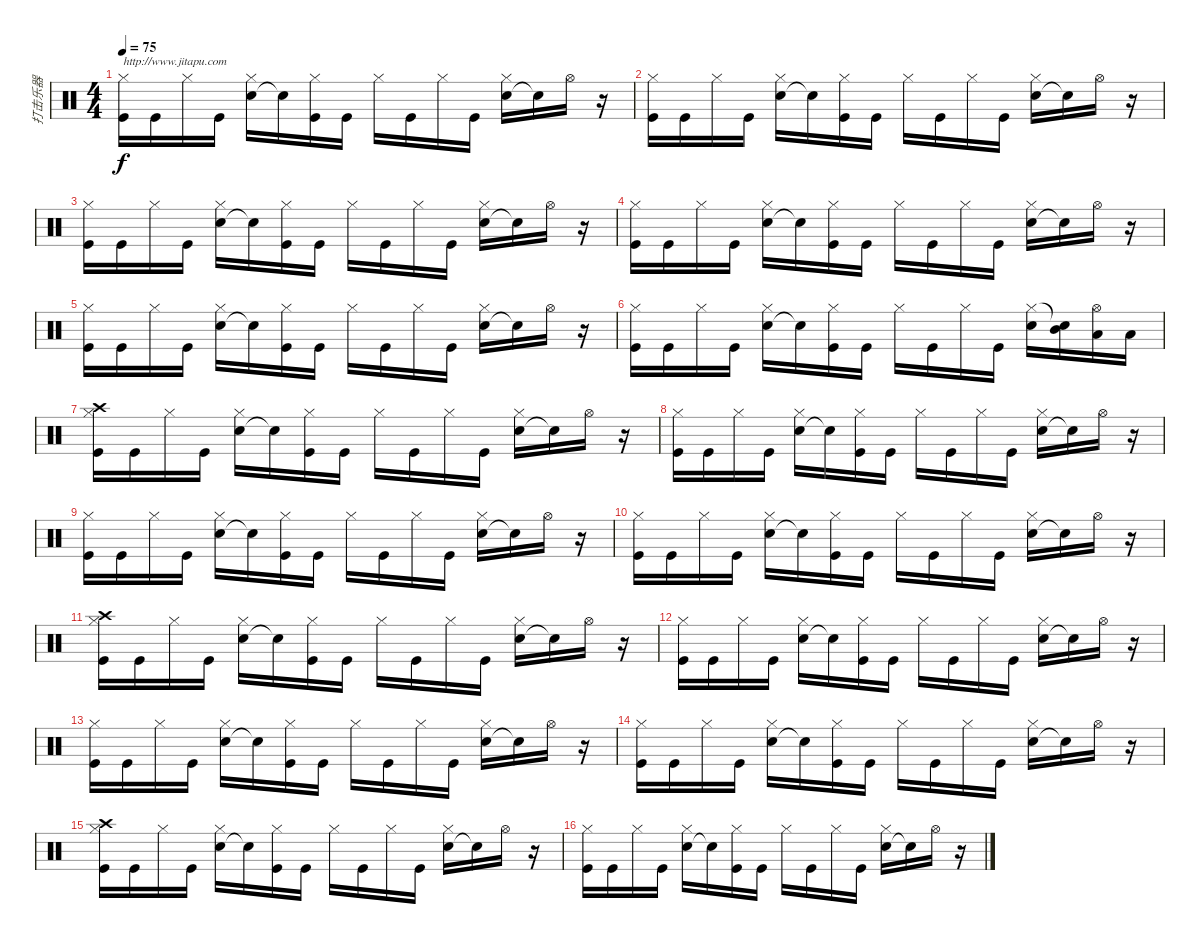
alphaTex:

\track ("打击乐器" "打击乐器") {instrument percussion}
\staff {score}
\articulation defaults
\ts (4 4)
\tempo 75
\clef neutral
\ks c
("Kick (hit)" "Hi-Hat (closed)").16{txt "http://www.jitapu.com" dy f} "Kick (hit)".16 "Hi-Hat (closed)".16 "Kick (hit)".16 ("Electric Snare (hit)" "Hi-Hat (closed)").16 "Electric Snare (hit)"{t}.16 ("Kick (hit)" "Hi-Hat (closed)").16 "Kick (hit)".16 "Hi-Hat (closed)".16 "Kick (hit)".16 "Hi-Hat (closed)".16 "Kick (hit)".16 ("Electric Snare (hit)" "Hi-Hat (closed)").16 "Electric Snare (hit)"{t}.16 "Hi-Hat (open)".16 r.16 |
("Kick (hit)" "Hi-Hat (closed)").16 "Kick (hit)".16 "Hi-Hat (closed)".16 "Kick (hit)".16 ("Electric Snare (hit)" "Hi-Hat (closed)").16 "Electric Snare (hit)"{t}.16 ("Kick (hit)" "Hi-Hat (closed)").16 "Kick (hit)".16 "Hi-Hat (closed)".16 "Kick (hit)".16 "Hi-Hat (closed)".16 "Kick (hit)".16 ("Electric Snare (hit)" "Hi-Hat (closed)").16 "Electric Snare (hit)"{t}.16 "Hi-Hat (open)".16 r.16 |
("Kick (hit)" "Hi-Hat (closed)").16 "Kick (hit)".16 "Hi-Hat (closed)".16 "Kick (hit)".16 ("Electric Snare (hit)" "Hi-Hat (closed)").16 "Electric Snare (hit)"{t}.16 ("Kick (hit)" "Hi-Hat (closed)").16 "Kick (hit)".16 "Hi-Hat (closed)".16 "Kick (hit)".16 "Hi-Hat (closed)".16 "Kick (hit)".16 ("Electric Snare (hit)" "Hi-Hat (closed)").16 "Electric Snare (hit)"{t}.16 "Hi-Hat (open)".16 r.16 |
("Kick (hit)" "Hi-Hat (closed)").16 "Kick (hit)".16 "Hi-Hat (closed)".16 "Kick (hit)".16 ("Electric Snare (hit)" "Hi-Hat (closed)").16 "Electric Snare (hit)"{t}.16 ("Kick (hit)" "Hi-Hat (closed)").16 "Kick (hit)".16 "Hi-Hat (closed)".16 "Kick (hit)".16 "Hi-Hat (closed)".16 "Kick (hit)".16 ("Electric Snare (hit)" "Hi-Hat (closed)").16 "Electric Snare (hit)"{t}.16 "Hi-Hat (open)".16 r.16 |
("Kick (hit)" "Hi-Hat (closed)").16 "Kick (hit)".16 "Hi-Hat (closed)".16 "Kick (hit)".16 ("Electric Snare (hit)" "Hi-Hat (closed)").16 "Electric Snare (hit)"{t}.16 ("Kick (hit)" "Hi-Hat (closed)").16 "Kick (hit)".16 "Hi-Hat (closed)".16 "Kick (hit)".16 "Hi-Hat (closed)".16 "Kick (hit)".16 ("Electric Snare (hit)" "Hi-Hat (closed)").16 "Electric Snare (hit)"{t}.16 "Hi-Hat (open)".16 r.16 |
("Kick (hit)" "Hi-Hat (closed)").16 "Kick (hit)".16 "Hi-Hat (closed)".16 "Kick (hit)".16 ("Electric Snare (hit)" "Hi-Hat (closed)").16 "Electric Snare (hit)"{t}.16 ("Kick (hit)" "Hi-Hat (closed)").16 "Kick (hit)".16 "Hi-Hat (closed)".16 "Kick (hit)".16 "Hi-Hat (closed)".16 "Kick (hit)".16 ("Electric Snare (hit)" "Hi-Hat (closed)").16 ("Mid Tom (hit)" "Electric Snare (hit)"{t}).16 ("Low Tom (hit)" "Hi-Hat (open)").16 "Low Floor Tom (hit)".16 |
("Crash high (hit)" "Kick (hit)" "Hi-Hat (closed)").16 "Kick (hit)".16 "Hi-Hat (closed)".16 "Kick (hit)".16 ("Electric Snare (hit)" "Hi-Hat (closed)").16 "Electric Snare (hit)"{t}.16 ("Kick (hit)" "Hi-Hat (closed)").16 "Kick (hit)".16 "Hi-Hat (closed)".16 "Kick (hit)".16 "Hi-Hat (closed)".16 "Kick (hit)".16 ("Electric Snare (hit)" "Hi-Hat (closed)").16 "Electric Snare (hit)"{t}.16 "Hi-Hat (open)".16 r.16 |
("Kick (hit)" "Hi-Hat (closed)").16 "Kick (hit)".16 "Hi-Hat (closed)".16 "Kick (hit)".16 ("Electric Snare (hit)" "Hi-Hat (closed)").16 "Electric Snare (hit)"{t}.16 ("Kick (hit)" "Hi-Hat (closed)").16 "Kick (hit)".16 "Hi-Hat (closed)".16 "Kick (hit)".16 "Hi-Hat (closed)".16 "Kick (hit)".16 ("Electric Snare (hit)" "Hi-Hat (closed)").16 "Electric Snare (hit)"{t}.16 "Hi-Hat (open)".16 r.16 |
("Kick (hit)" "Hi-Hat (closed)").16 "Kick (hit)".16 "Hi-Hat (closed)".16 "Kick (hit)".16 ("Electric Snare (hit)" "Hi-Hat (closed)").16 "Electric Snare (hit)"{t}.16 ("Kick (hit)" "Hi-Hat (closed)").16 "Kick (hit)".16 "Hi-Hat (closed)".16 "Kick (hit)".16 "Hi-Hat (closed)".16 "Kick (hit)".16 ("Electric Snare (hit)" "Hi-Hat (closed)").16 "Electric Snare (hit)"{t}.16 "Hi-Hat (open)".16 r.16 |
("Kick (hit)" "Hi-Hat (closed)").16 "Kick (hit)".16 "Hi-Hat (closed)".16 "Kick (hit)".16 ("Electric Snare (hit)" "Hi-Hat (closed)").16 "Electric Snare (hit)"{t}.16 ("Kick (hit)" "Hi-Hat (closed)").16 "Kick (hit)".16 "Hi-Hat (closed)".16 "Kick (hit)".16 "Hi-Hat (closed)".16 "Kick (hit)".16 ("Electric Snare (hit)" "Hi-Hat (closed)").16 "Electric Snare (hit)"{t}.16 "Hi-Hat (open)".16 r.16 |
("Crash high (hit)" "Kick (hit)" "Hi-Hat (closed)").16 "Kick (hit)".16 "Hi-Hat (closed)".16 "Kick (hit)".16 ("Electric Snare (hit)" "Hi-Hat (closed)").16 "Electric Snare (hit)"{t}.16 ("Kick (hit)" "Hi-Hat (closed)").16 "Kick (hit)".16 "Hi-Hat (closed)".16 "Kick (hit)".16 "Hi-Hat (closed)".16 "Kick (hit)".16 ("Electric Snare (hit)" "Hi-Hat (closed)").16 "Electric Snare (hit)"{t}.16 "Hi-Hat (open)".16 r.16 |
("Kick (hit)" "Hi-Hat (closed)").16 "Kick (hit)".16 "Hi-Hat (closed)".16 "Kick (hit)".16 ("Electric Snare (hit)" "Hi-Hat (closed)").16 "Electric Snare (hit)"{t}.16 ("Kick (hit)" "Hi-Hat (closed)").16 "Kick (hit)".16 "Hi-Hat (closed)".16 "Kick (hit)".16 "Hi-Hat (closed)".16 "Kick (hit)".16 ("Electric Snare (hit)" "Hi-Hat (closed)").16 "Electric Snare (hit)"{t}.16 "Hi-Hat (open)".16 r.16 |
("Kick (hit)" "Hi-Hat (closed)").16 "Kick (hit)".16 "Hi-Hat (closed)".16 "Kick (hit)".16 ("Electric Snare (hit)" "Hi-Hat (closed)").16 "Electric Snare (hit)"{t}.16 ("Kick (hit)" "Hi-Hat (closed)").16 "Kick (hit)".16 "Hi-Hat (closed)".16 "Kick (hit)".16 "Hi-Hat (closed)".16 "Kick (hit)".16 ("Electric Snare (hit)" "Hi-Hat (closed)").16 "Electric Snare (hit)"{t}.16 "Hi-Hat (open)".16 r.16 |
("Kick (hit)" "Hi-Hat (closed)").16 "Kick (hit)".16 "Hi-Hat (closed)".16 "Kick (hit)".16 ("Electric Snare (hit)" "Hi-Hat (closed)").16 "Electric Snare (hit)"{t}.16 ("Kick (hit)" "Hi-Hat (closed)").16 "Kick (hit)".16 "Hi-Hat (closed)".16 "Kick (hit)".16 "Hi-Hat (closed)".16 "Kick (hit)".16 ("Electric Snare (hit)" "Hi-Hat (closed)").16 "Electric Snare (hit)"{t}.16 "Hi-Hat (open)".16 r.16 |
("Crash high (hit)" "Kick (hit)" "Hi-Hat (closed)").16 "Kick (hit)".16 "Hi-Hat (closed)".16 "Kick (hit)".16 ("Electric Snare (hit)" "Hi-Hat (closed)").16 "Electric Snare (hit)"{t}.16 ("Kick (hit)" "Hi-Hat (closed)").16 "Kick (hit)".16 "Hi-Hat (closed)".16 "Kick (hit)".16 "Hi-Hat (closed)".16 "Kick (hit)".16 ("Electric Snare (hit)" "Hi-Hat (closed)").16 "Electric Snare (hit)"{t}.16 "Hi-Hat (open)".16 r.16 |
("Kick (hit)" "Hi-Hat (closed)").16 "Kick (hit)".16 "Hi-Hat (closed)".16 "Kick (hit)".16 ("Electric Snare (hit)" "Hi-Hat (closed)").16 "Electric Snare (hit)"{t}.16 ("Kick (hit)" "Hi-Hat (closed)").16 "Kick (hit)".16 "Hi-Hat (closed)".16 "Kick (hit)".16 "Hi-Hat (closed)".16 "Kick (hit)".16 ("Electric Snare (hit)" "Hi-Hat (closed)").16 "Electric Snare (hit)"{t}.16 "Hi-Hat (open)".16 r.16
